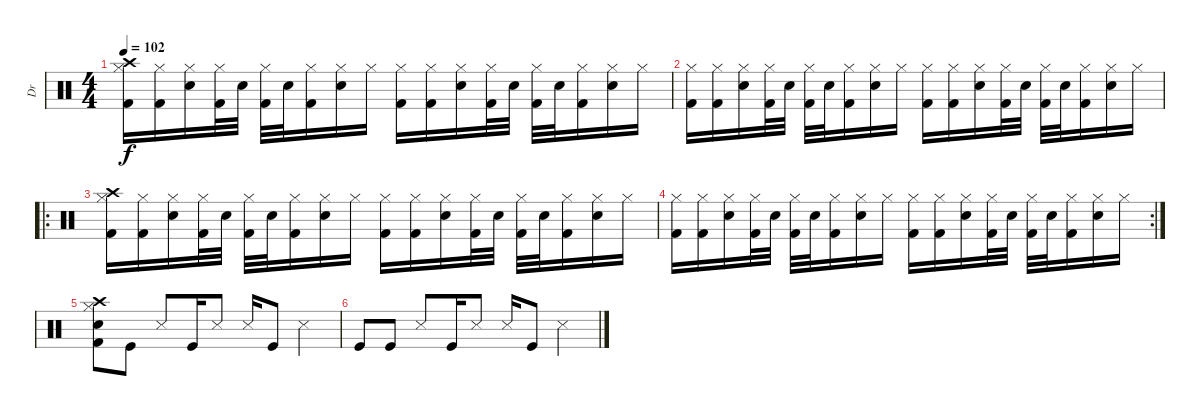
\track ("Dr" "Dr") {instrument percussion}
\staff {score}
\articulation defaults
\ts (4 4)
\tempo 102
\clef neutral
\ks c
("Crash high (hit)" "Hi-Hat (closed)" "Kick (hit) 2").16{dy f} ("Hi-Hat (closed)" "Kick (hit) 2").16 ("Hi-Hat (closed)" "Electric Snare (hit)").16 ("Hi-Hat (closed)" "Kick (hit) 2").32 "Electric Snare (hit)".32 ("Hi-Hat (closed)" "Kick (hit) 2").32 "Electric Snare (hit)".32 ("Hi-Hat (closed)" "Kick (hit) 2").16 ("Hi-Hat (closed)" "Electric Snare (hit)").16 "Hi-Hat (closed)".16 ("Hi-Hat (closed)" "Kick (hit) 2").16 ("Hi-Hat (closed)" "Kick (hit) 2").16 ("Hi-Hat (closed)" "Electric Snare (hit)").16 ("Hi-Hat (closed)" "Kick (hit) 2").32 "Electric Snare (hit)".32 ("Hi-Hat (closed)" "Kick (hit) 2").32 "Electric Snare (hit)".32 ("Hi-Hat (closed)" "Kick (hit) 2").16 ("Hi-Hat (closed)" "Electric Snare (hit)").16 "Hi-Hat (closed)".16 |
("Hi-Hat (closed)" "Kick (hit) 2").16 ("Hi-Hat (closed)" "Kick (hit) 2").16 ("Hi-Hat (closed)" "Electric Snare (hit)").16 ("Hi-Hat (closed)" "Kick (hit) 2").32 "Electric Snare (hit)".32 ("Hi-Hat (closed)" "Kick (hit) 2").32 "Electric Snare (hit)".32 ("Hi-Hat (closed)" "Kick (hit) 2").16 ("Hi-Hat (closed)" "Electric Snare (hit)").16 "Hi-Hat (closed)".16 ("Hi-Hat (closed)" "Kick (hit) 2").16 ("Hi-Hat (closed)" "Kick (hit) 2").16 ("Hi-Hat (closed)" "Electric Snare (hit)").16 ("Hi-Hat (closed)" "Kick (hit) 2").32 "Electric Snare (hit)".32 ("Hi-Hat (closed)" "Kick (hit) 2").32 "Electric Snare (hit)".32 ("Hi-Hat (closed)" "Kick (hit) 2").16 ("Hi-Hat (closed)" "Electric Snare (hit)").16 "Hi-Hat (closed)".16 |
\ro
("Crash high (hit)" "Hi-Hat (closed)" "Kick (hit) 2").16 ("Hi-Hat (closed)" "Kick (hit) 2").16 ("Hi-Hat (closed)" "Electric Snare (hit)").16 ("Hi-Hat (closed)" "Kick (hit) 2").32 "Electric Snare (hit)".32 ("Hi-Hat (closed)" "Kick (hit) 2").32 "Electric Snare (hit)".32 ("Hi-Hat (closed)" "Kick (hit) 2").16 ("Hi-Hat (closed)" "Electric Snare (hit)").16 "Hi-Hat (closed)".16 ("Hi-Hat (closed)" "Kick (hit) 2").16 ("Hi-Hat (closed)" "Kick (hit) 2").16 ("Hi-Hat (closed)" "Electric Snare (hit)").16 ("Hi-Hat (closed)" "Kick (hit) 2").32 "Electric Snare (hit)".32 ("Hi-Hat (closed)" "Kick (hit) 2").32 "Electric Snare (hit)".32 ("Hi-Hat (closed)" "Kick (hit) 2").16 ("Hi-Hat (closed)" "Electric Snare (hit)").16 "Hi-Hat (closed)".16 |
\rc 2
("Hi-Hat (closed)" "Kick (hit) 2").16 ("Hi-Hat (closed)" "Kick (hit) 2").16 ("Hi-Hat (closed)" "Electric Snare (hit)").16 ("Hi-Hat (closed)" "Kick (hit) 2").32 "Electric Snare (hit)".32 ("Hi-Hat (closed)" "Kick (hit) 2").32 "Electric Snare (hit)".32 ("Hi-Hat (closed)" "Kick (hit) 2").16 ("Hi-Hat (closed)" "Electric Snare (hit)").16 "Hi-Hat (closed)".16 ("Hi-Hat (closed)" "Kick (hit) 2").16 ("Hi-Hat (closed)" "Kick (hit) 2").16 ("Hi-Hat (closed)" "Electric Snare (hit)").16 ("Hi-Hat (closed)" "Kick (hit) 2").32 "Electric Snare (hit)".32 ("Hi-Hat (closed)" "Kick (hit) 2").32 "Electric Snare (hit)".32 ("Hi-Hat (closed)" "Kick (hit) 2").16 ("Hi-Hat (closed)" "Electric Snare (hit)").16 "Hi-Hat (closed)".16 |
("Crash high (hit)" "Hi-Hat (closed)" "Electric Snare (hit)" "Kick (hit) 2").8{volume 4} "Kick (hit)".8 "Snare (side stick) 3".8 "Kick (hit)".16 "Snare (side stick) 3".8 "Snare (side stick) 3".16 "Kick (hit)".8 "Snare (side stick) 3".4 |
"Kick (hit)".8 "Kick (hit)".8 "Snare (side stick) 3".8 "Kick (hit)".16 "Snare (side stick) 3".8 "Snare (side stick) 3".16 "Kick (hit)".8 "Snare (side stick) 3".4
